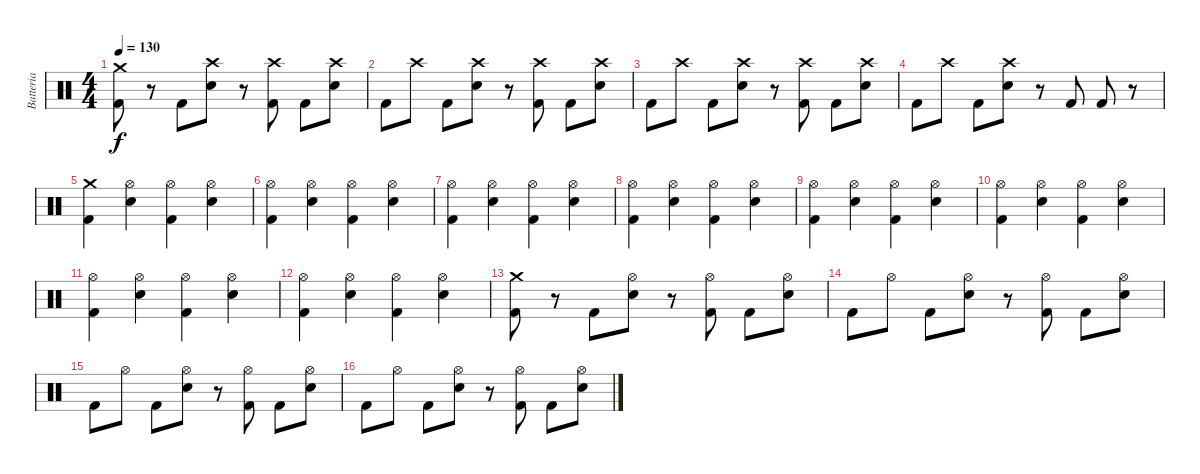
\track ("Batteria" "Batteria") {instrument percussion}
\staff {score}
\articulation defaults
\ts (4 4)
\tempo 130
\clef neutral
\ks c
("Crash medium (hit)" "Kick (hit) 2").8{dy f} r.8 "Kick (hit) 2".8 ("Crash high (hit)" "Electric Snare (hit)").8 r.8 ("Crash high (hit)" "Kick (hit) 2").8 "Kick (hit) 2".8 ("Crash high (hit)" "Electric Snare (hit)").8 |
"Kick (hit) 2".8 "Crash high (hit)".8 "Kick (hit) 2".8 ("Electric Snare (hit)" "Crash high (hit)").8 r.8 ("Kick (hit) 2" "Crash high (hit)").8 "Kick (hit) 2".8 ("Electric Snare (hit)" "Crash high (hit)").8 |
"Kick (hit) 2".8 "Crash high (hit)".8 "Kick (hit) 2".8 ("Crash high (hit)" "Electric Snare (hit)").8 r.8 ("Crash high (hit)" "Kick (hit) 2").8 "Kick (hit) 2".8 ("Crash high (hit)" "Electric Snare (hit)").8 |
"Kick (hit) 2".8 "Crash high (hit)".8 "Kick (hit) 2".8 ("Electric Snare (hit)" "Crash high (hit)").8 r.8 "Kick (hit) 2".8 "Kick (hit) 2".8 r.8 |
("Kick (hit) 2" "Crash medium (hit)").4 ("Electric Snare (hit)" "Hi-Hat (open)").4 ("Kick (hit) 2" "Hi-Hat (open)").4 ("Electric Snare (hit)" "Hi-Hat (open)").4 |
("Kick (hit) 2" "Hi-Hat (open)").4 ("Electric Snare (hit)" "Hi-Hat (open)").4 ("Kick (hit) 2" "Hi-Hat (open)").4 ("Electric Snare (hit)" "Hi-Hat (open)").4 |
("Kick (hit) 2" "Hi-Hat (open)").4 ("Electric Snare (hit)" "Hi-Hat (open)").4 ("Kick (hit) 2" "Hi-Hat (open)").4 ("Electric Snare (hit)" "Hi-Hat (open)").4 |
("Kick (hit) 2" "Hi-Hat (open)").4 ("Electric Snare (hit)" "Hi-Hat (open)").4 ("Kick (hit) 2" "Hi-Hat (open)").4 ("Electric Snare (hit)" "Hi-Hat (open)").4 |
("Kick (hit) 2" "Hi-Hat (open)").4 ("Electric Snare (hit)" "Hi-Hat (open)").4 ("Kick (hit) 2" "Hi-Hat (open)").4 ("Electric Snare (hit)" "Hi-Hat (open)").4 |
("Kick (hit) 2" "Hi-Hat (open)").4 ("Electric Snare (hit)" "Hi-Hat (open)").4 ("Kick (hit) 2" "Hi-Hat (open)").4 ("Electric Snare (hit)" "Hi-Hat (open)").4 |
("Kick (hit) 2" "Hi-Hat (open)").4 ("Electric Snare (hit)" "Hi-Hat (open)").4 ("Kick (hit) 2" "Hi-Hat (open)").4 ("Electric Snare (hit)" "Hi-Hat (open)").4 |
("Kick (hit) 2" "Hi-Hat (open)").4 ("Electric Snare (hit)" "Hi-Hat (open)").4 ("Kick (hit) 2" "Hi-Hat (open)").4 ("Electric Snare (hit)" "Hi-Hat (open)").4 |
("Crash medium (hit)" "Kick (hit) 2").8 r.8 "Kick (hit) 2".8 ("Hi-Hat (open)" "Electric Snare (hit)").8 r.8 ("Hi-Hat (open)" "Kick (hit) 2").8 "Kick (hit) 2".8 ("Hi-Hat (open)" "Electric Snare (hit)").8 |
"Kick (hit) 2".8 "Hi-Hat (open)".8 "Kick (hit) 2".8 ("Electric Snare (hit)" "Hi-Hat (open)").8 r.8 ("Kick (hit) 2" "Hi-Hat (open)").8 "Kick (hit) 2".8 ("Electric Snare (hit)" "Hi-Hat (open)").8 |
"Kick (hit) 2".8 "Hi-Hat (open)".8 "Kick (hit) 2".8 ("Hi-Hat (open)" "Electric Snare (hit)").8 r.8 ("Hi-Hat (open)" "Kick (hit) 2").8 "Kick (hit) 2".8 ("Hi-Hat (open)" "Electric Snare (hit)").8 |
"Kick (hit) 2".8 "Hi-Hat (open)".8 "Kick (hit) 2".8 ("Electric Snare (hit)" "Hi-Hat (open)").8 r.8 ("Kick (hit) 2" "Hi-Hat (open)").8 "Kick (hit) 2".8 ("Electric Snare (hit)" "Hi-Hat (open)").8
